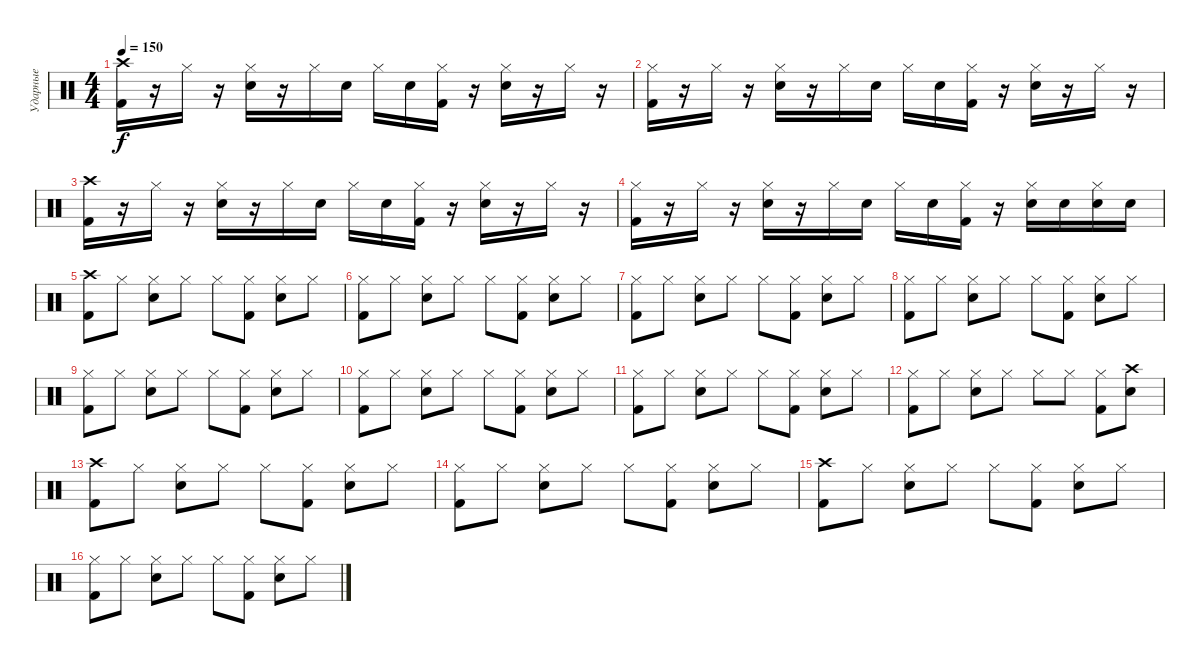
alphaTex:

\track ("Ударные" "Ударные") {instrument percussion}
\staff {score}
\articulation defaults
\ts (4 4)
\tempo 150
\clef neutral
\ks c
("Kick (hit) 2" "Crash high (hit)").16{dy f} r.16 "Hi-Hat (closed)".16 r.16 ("Electric Snare (hit)" "Hi-Hat (closed)").16 r.16 "Hi-Hat (closed)".16 "Electric Snare (hit)".16 "Hi-Hat (closed)".16 "Electric Snare (hit)".16 ("Kick (hit) 2" "Hi-Hat (closed)").16 r.16 ("Electric Snare (hit)" "Hi-Hat (closed)").16 r.16 "Hi-Hat (closed)".16 r.16 |
("Kick (hit) 2" "Hi-Hat (closed)").16 r.16 "Hi-Hat (closed)".16 r.16 ("Electric Snare (hit)" "Hi-Hat (closed)").16 r.16 "Hi-Hat (closed)".16 "Electric Snare (hit)".16 "Hi-Hat (closed)".16 "Electric Snare (hit)".16 ("Kick (hit) 2" "Hi-Hat (closed)").16 r.16 ("Electric Snare (hit)" "Hi-Hat (closed)").16 r.16 "Hi-Hat (closed)".16 r.16 |
("Kick (hit) 2" "Crash high (hit)").16 r.16 "Hi-Hat (closed)".16 r.16 ("Electric Snare (hit)" "Hi-Hat (closed)").16 r.16 "Hi-Hat (closed)".16 "Electric Snare (hit)".16 "Hi-Hat (closed)".16 "Electric Snare (hit)".16 ("Kick (hit) 2" "Hi-Hat (closed)").16 r.16 ("Electric Snare (hit)" "Hi-Hat (closed)").16 r.16 "Hi-Hat (closed)".16 r.16 |
("Kick (hit) 2" "Hi-Hat (closed)").16 r.16 "Hi-Hat (closed)".16 r.16 ("Electric Snare (hit)" "Hi-Hat (closed)").16 r.16 "Hi-Hat (closed)".16 "Electric Snare (hit)".16 "Hi-Hat (closed)".16 "Electric Snare (hit)".16 ("Kick (hit) 2" "Hi-Hat (closed)").16 r.16 ("Electric Snare (hit)" "Hi-Hat (closed)").16 "Electric Snare (hit)".16 ("Electric Snare (hit)" "Hi-Hat (closed)").16 "Electric Snare (hit)".16 |
("Kick (hit) 2" "Crash high (hit)").8 "Hi-Hat (closed)".8 ("Electric Snare (hit)" "Hi-Hat (closed)").8 "Hi-Hat (closed)".8 "Hi-Hat (closed)".8 ("Kick (hit) 2" "Hi-Hat (closed)").8 ("Electric Snare (hit)" "Hi-Hat (closed)").8 "Hi-Hat (closed)".8 |
("Kick (hit) 2" "Hi-Hat (closed)").8 "Hi-Hat (closed)".8 ("Electric Snare (hit)" "Hi-Hat (closed)").8 "Hi-Hat (closed)".8 "Hi-Hat (closed)".8 ("Kick (hit) 2" "Hi-Hat (closed)").8 ("Electric Snare (hit)" "Hi-Hat (closed)").8 "Hi-Hat (closed)".8 |
("Kick (hit) 2" "Hi-Hat (closed)").8 "Hi-Hat (closed)".8 ("Electric Snare (hit)" "Hi-Hat (closed)").8 "Hi-Hat (closed)".8 "Hi-Hat (closed)".8 ("Kick (hit) 2" "Hi-Hat (closed)").8 ("Electric Snare (hit)" "Hi-Hat (closed)").8 "Hi-Hat (closed)".8 |
("Kick (hit) 2" "Hi-Hat (closed)").8 "Hi-Hat (closed)".8 ("Electric Snare (hit)" "Hi-Hat (closed)").8 "Hi-Hat (closed)".8 "Hi-Hat (closed)".8 ("Kick (hit) 2" "Hi-Hat (closed)").8 ("Electric Snare (hit)" "Hi-Hat (closed)").8 "Hi-Hat (closed)".8 |
("Kick (hit) 2" "Hi-Hat (closed)").8 "Hi-Hat (closed)".8 ("Electric Snare (hit)" "Hi-Hat (closed)").8 "Hi-Hat (closed)".8 "Hi-Hat (closed)".8 ("Kick (hit) 2" "Hi-Hat (closed)").8 ("Electric Snare (hit)" "Hi-Hat (closed)").8 "Hi-Hat (closed)".8 |
("Kick (hit) 2" "Hi-Hat (closed)").8 "Hi-Hat (closed)".8 ("Electric Snare (hit)" "Hi-Hat (closed)").8 "Hi-Hat (closed)".8 "Hi-Hat (closed)".8 ("Kick (hit) 2" "Hi-Hat (closed)").8 ("Electric Snare (hit)" "Hi-Hat (closed)").8 "Hi-Hat (closed)".8 |
("Kick (hit) 2" "Hi-Hat (closed)").8 "Hi-Hat (closed)".8 ("Electric Snare (hit)" "Hi-Hat (closed)").8 "Hi-Hat (closed)".8 "Hi-Hat (closed)".8 ("Kick (hit) 2" "Hi-Hat (closed)").8 ("Electric Snare (hit)" "Hi-Hat (closed)").8 "Hi-Hat (closed)".8 |
("Kick (hit) 2" "Hi-Hat (closed)").8 "Hi-Hat (closed)".8 ("Electric Snare (hit)" "Hi-Hat (closed)").8 "Hi-Hat (closed)".8 "Hi-Hat (closed)".8 "Hi-Hat (closed)".8 ("Kick (hit) 2" "Hi-Hat (closed)").8 ("Electric Snare (hit)" "Crash high (hit)").8 |
("Kick (hit) 2" "Crash high (hit)").8 "Hi-Hat (closed)".8 ("Electric Snare (hit)" "Hi-Hat (closed)").8 "Hi-Hat (closed)".8 "Hi-Hat (closed)".8 ("Kick (hit) 2" "Hi-Hat (closed)").8 ("Electric Snare (hit)" "Hi-Hat (closed)").8 "Hi-Hat (closed)".8 |
("Kick (hit) 2" "Hi-Hat (closed)").8 "Hi-Hat (closed)".8 ("Electric Snare (hit)" "Hi-Hat (closed)").8 "Hi-Hat (closed)".8 "Hi-Hat (closed)".8 ("Kick (hit) 2" "Hi-Hat (closed)").8 ("Electric Snare (hit)" "Hi-Hat (closed)").8 "Hi-Hat (closed)".8 |
("Kick (hit) 2" "Crash high (hit)").8 "Hi-Hat (closed)".8 ("Electric Snare (hit)" "Hi-Hat (closed)").8 "Hi-Hat (closed)".8 "Hi-Hat (closed)".8 ("Kick (hit) 2" "Hi-Hat (closed)").8 ("Electric Snare (hit)" "Hi-Hat (closed)").8 "Hi-Hat (closed)".8 |
("Kick (hit) 2" "Hi-Hat (closed)").8 "Hi-Hat (closed)".8 ("Electric Snare (hit)" "Hi-Hat (closed)").8 "Hi-Hat (closed)".8 "Hi-Hat (closed)".8 ("Kick (hit) 2" "Hi-Hat (closed)").8 ("Electric Snare (hit)" "Hi-Hat (closed)").8 "Hi-Hat (closed)".8
